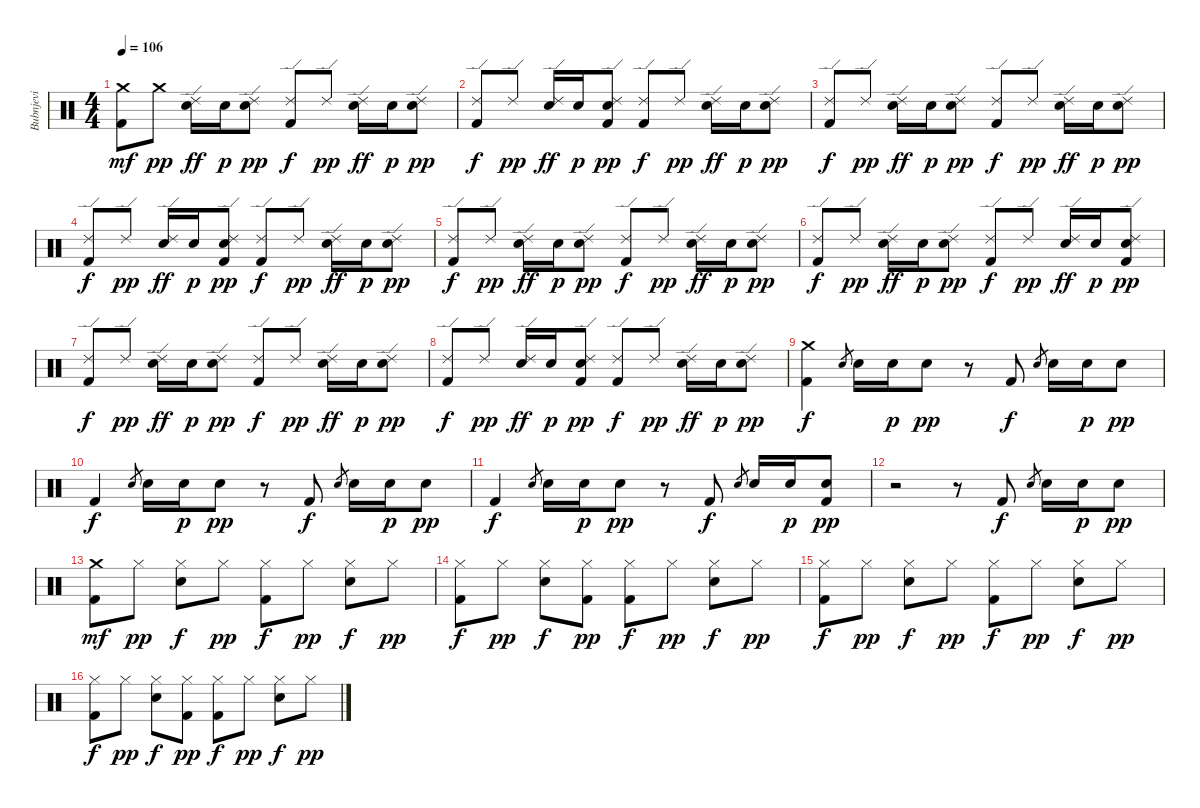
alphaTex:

\track ("Bubnjevi" "Bubnjevi") {instrument percussion}
\staff {score}
\articulation defaults
\ts (4 4)
\tempo 106
\clef neutral
\ks c
("Crash medium (hit)" "Kick (hit) 2").8{dy mf} "Crash medium (hit)".8{dy pp} ("Ride (edge) 2" "Electric Snare (hit)").16{dy ff} "Electric Snare (hit)".16{dy p} ("Ride (edge) 2" "Electric Snare (hit)").8{dy pp} ("Ride (edge) 2" "Kick (hit) 2").8{dy f} "Ride (edge) 2".8{dy pp} ("Ride (edge) 2" "Electric Snare (hit)").16{dy ff} "Electric Snare (hit)".16{dy p} ("Ride (edge) 2" "Electric Snare (hit)").8{dy pp} |
("Ride (edge) 2" "Kick (hit) 2").8{dy f} "Ride (edge) 2".8{dy pp} ("Ride (edge) 2" "Electric Snare (hit)").16{dy ff} "Electric Snare (hit)".16{dy p} ("Ride (edge) 2" "Electric Snare (hit)" "Kick (hit) 2").8{dy pp} ("Ride (edge) 2" "Kick (hit) 2").8{dy f} "Ride (edge) 2".8{dy pp} ("Ride (edge) 2" "Electric Snare (hit)").16{dy ff} "Electric Snare (hit)".16{dy p} ("Ride (edge) 2" "Electric Snare (hit)").8{dy pp} |
("Ride (edge) 2" "Kick (hit) 2").8{dy f} "Ride (edge) 2".8{dy pp} ("Ride (edge) 2" "Electric Snare (hit)").16{dy ff} "Electric Snare (hit)".16{dy p} ("Ride (edge) 2" "Electric Snare (hit)").8{dy pp} ("Ride (edge) 2" "Kick (hit) 2").8{dy f} "Ride (edge) 2".8{dy pp} ("Ride (edge) 2" "Electric Snare (hit)").16{dy ff} "Electric Snare (hit)".16{dy p} ("Ride (edge) 2" "Electric Snare (hit)").8{dy pp} |
("Ride (edge) 2" "Kick (hit) 2").8{dy f} "Ride (edge) 2".8{dy pp} ("Ride (edge) 2" "Electric Snare (hit)").16{dy ff} "Electric Snare (hit)".16{dy p} ("Ride (edge) 2" "Electric Snare (hit)" "Kick (hit) 2").8{dy pp} ("Ride (edge) 2" "Kick (hit) 2").8{dy f} "Ride (edge) 2".8{dy pp} ("Ride (edge) 2" "Electric Snare (hit)").16{dy ff} "Electric Snare (hit)".16{dy p} ("Ride (edge) 2" "Electric Snare (hit)").8{dy pp} |
("Ride (edge) 2" "Kick (hit) 2").8{dy f} "Ride (edge) 2".8{dy pp} ("Ride (edge) 2" "Electric Snare (hit)").16{dy ff} "Electric Snare (hit)".16{dy p} ("Ride (edge) 2" "Electric Snare (hit)").8{dy pp} ("Ride (edge) 2" "Kick (hit) 2").8{dy f} "Ride (edge) 2".8{dy pp} ("Ride (edge) 2" "Electric Snare (hit)").16{dy ff} "Electric Snare (hit)".16{dy p} ("Ride (edge) 2" "Electric Snare (hit)").8{dy pp} |
("Ride (edge) 2" "Kick (hit) 2").8{dy f} "Ride (edge) 2".8{dy pp} ("Ride (edge) 2" "Electric Snare (hit)").16{dy ff} "Electric Snare (hit)".16{dy p} ("Ride (edge) 2" "Electric Snare (hit)").8{dy pp} ("Ride (edge) 2" "Kick (hit) 2").8{dy f} "Ride (edge) 2".8{dy pp} ("Ride (edge) 2" "Electric Snare (hit)").16{dy ff} "Electric Snare (hit)".16{dy p} ("Ride (edge) 2" "Electric Snare (hit)" "Kick (hit) 2").8{dy pp} |
("Ride (edge) 2" "Kick (hit) 2").8{dy f} "Ride (edge) 2".8{dy pp} ("Ride (edge) 2" "Electric Snare (hit)").16{dy ff} "Electric Snare (hit)".16{dy p} ("Ride (edge) 2" "Electric Snare (hit)").8{dy pp} ("Ride (edge) 2" "Kick (hit) 2").8{dy f} "Ride (edge) 2".8{dy pp} ("Ride (edge) 2" "Electric Snare (hit)").16{dy ff} "Electric Snare (hit)".16{dy p} ("Ride (edge) 2" "Electric Snare (hit)").8{dy pp} |
("Ride (edge) 2" "Kick (hit) 2").8{dy f} "Ride (edge) 2".8{dy pp} ("Ride (edge) 2" "Electric Snare (hit)").16{dy ff} "Electric Snare (hit)".16{dy p} ("Ride (edge) 2" "Electric Snare (hit)" "Kick (hit) 2").8{dy pp} ("Ride (edge) 2" "Kick (hit) 2").8{dy f} "Ride (edge) 2".8{dy pp} ("Ride (edge) 2" "Electric Snare (hit)").16{dy ff} "Electric Snare (hit)".16{dy p} ("Ride (edge) 2" "Electric Snare (hit)").8{dy pp} |
("Crash medium (hit)" "Kick (hit) 2").4{dy f} "Electric Snare (hit)".8{gr} "Electric Snare (hit)".16 "Electric Snare (hit)".16{dy p} "Electric Snare (hit)".8{dy pp} r.8 "Kick (hit) 2".8{dy f} "Electric Snare (hit)".8{gr} "Electric Snare (hit)".16 "Electric Snare (hit)".16{dy p} "Electric Snare (hit)".8{dy pp} |
"Kick (hit) 2".4{dy f} "Electric Snare (hit)".8{gr} "Electric Snare (hit)".16 "Electric Snare (hit)".16{dy p} "Electric Snare (hit)".8{dy pp} r.8 "Kick (hit) 2".8{dy f} "Electric Snare (hit)".8{gr} "Electric Snare (hit)".16 "Electric Snare (hit)".16{dy p} "Electric Snare (hit)".8{dy pp} |
"Kick (hit) 2".4{dy f} "Electric Snare (hit)".8{gr} "Electric Snare (hit)".16 "Electric Snare (hit)".16{dy p} "Electric Snare (hit)".8{dy pp} r.8 "Kick (hit) 2".8{dy f} "Electric Snare (hit)".8{gr} "Electric Snare (hit)".16 "Electric Snare (hit)".16{dy p} ("Electric Snare (hit)" "Kick (hit) 2").8{dy pp} |
r.2 r.8 "Kick (hit) 2".8{dy f} "Electric Snare (hit)".8{gr} "Electric Snare (hit)".16 "Electric Snare (hit)".16{dy p} "Electric Snare (hit)".8{dy pp} |
("Crash medium (hit)" "Kick (hit) 2").8{dy mf} "Hi-Hat (closed)".8{dy pp} ("Hi-Hat (closed)" "Electric Snare (hit)").8{dy f} "Hi-Hat (closed)".8{dy pp} ("Hi-Hat (closed)" "Kick (hit) 2").8{dy f} "Hi-Hat (closed)".8{dy pp} ("Hi-Hat (closed)" "Electric Snare (hit)").8{dy f} "Hi-Hat (closed)".8{dy pp} |
("Hi-Hat (closed)" "Kick (hit) 2").8{dy f} "Hi-Hat (closed)".8{dy pp} ("Hi-Hat (closed)" "Electric Snare (hit)").8{dy f} ("Hi-Hat (closed)" "Kick (hit) 2").8{dy pp} ("Hi-Hat (closed)" "Kick (hit) 2").8{dy f} "Hi-Hat (closed)".8{dy pp} ("Hi-Hat (closed)" "Electric Snare (hit)").8{dy f} "Hi-Hat (closed)".8{dy pp} |
("Hi-Hat (closed)" "Kick (hit) 2").8{dy f} "Hi-Hat (closed)".8{dy pp} ("Hi-Hat (closed)" "Electric Snare (hit)").8{dy f} "Hi-Hat (closed)".8{dy pp} ("Hi-Hat (closed)" "Kick (hit) 2").8{dy f} "Hi-Hat (closed)".8{dy pp} ("Hi-Hat (closed)" "Electric Snare (hit)").8{dy f} "Hi-Hat (closed)".8{dy pp} |
("Hi-Hat (closed)" "Kick (hit) 2").8{dy f} "Hi-Hat (closed)".8{dy pp} ("Hi-Hat (closed)" "Electric Snare (hit)").8{dy f} ("Hi-Hat (closed)" "Kick (hit) 2").8{dy pp} ("Hi-Hat (closed)" "Kick (hit) 2").8{dy f} "Hi-Hat (closed)".8{dy pp} ("Hi-Hat (closed)" "Electric Snare (hit)").8{dy f} "Hi-Hat (closed)".8{dy pp}
